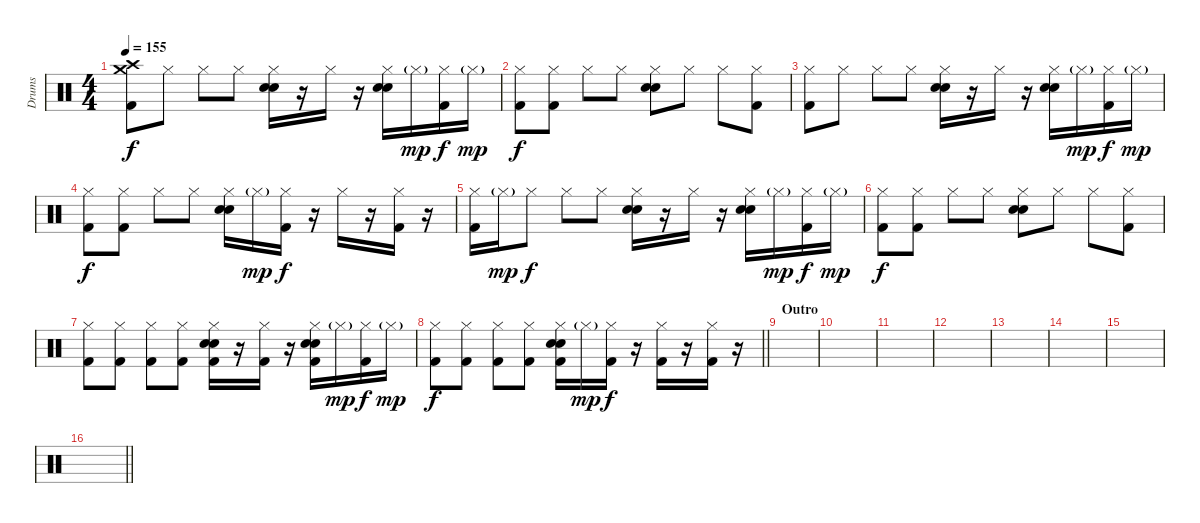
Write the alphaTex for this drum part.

\track ("Drums" "Drums") {instrument percussion}
\staff {score}
\articulation defaults
\ts (4 4)
\section ("" "")
\tempo 155
\clef neutral
\ks c
("Crash high (hit)" "Crash medium (hit)" "Kick (hit) 2").8{dy f} "Hi-Hat (closed)".8 "Hi-Hat (closed)".8 "Hi-Hat (closed)".8 ("Hi-Hat (closed)" "Electric Snare (hit)" "Hand Clap (hit)").16 r.16 "Hi-Hat (closed)".16 r.16 ("Hi-Hat (closed)" "Electric Snare (hit)" "Hand Clap (hit)").16 "Hi-Hat (closed)"{g}.16{dy mp} ("Hi-Hat (closed)" "Kick (hit) 2").16{dy f} "Hi-Hat (closed)"{g}.16{dy mp} |
("Hi-Hat (closed)" "Kick (hit) 2").8{dy f} ("Hi-Hat (closed)" "Kick (hit) 2").8 "Hi-Hat (closed)".8 "Hi-Hat (closed)".8 ("Hi-Hat (closed)" "Electric Snare (hit)" "Hand Clap (hit)").8 "Hi-Hat (closed)".8 "Hi-Hat (closed)".8 ("Hi-Hat (closed)" "Kick (hit) 2").8 |
("Hi-Hat (closed)" "Kick (hit) 2").8 "Hi-Hat (closed)".8 "Hi-Hat (closed)".8 "Hi-Hat (closed)".8 ("Hi-Hat (closed)" "Electric Snare (hit)" "Hand Clap (hit)").16 r.16 "Hi-Hat (closed)".16 r.16 ("Hi-Hat (closed)" "Electric Snare (hit)" "Hand Clap (hit)").16 "Hi-Hat (closed)"{g}.16{dy mp} ("Hi-Hat (closed)" "Kick (hit) 2").16{dy f} "Hi-Hat (closed)"{g}.16{dy mp} |
("Hi-Hat (closed)" "Kick (hit) 2").8{dy f} ("Hi-Hat (closed)" "Kick (hit) 2").8 "Hi-Hat (closed)".8 "Hi-Hat (closed)".8 ("Hi-Hat (closed)" "Electric Snare (hit)" "Hand Clap (hit)").16 "Hi-Hat (closed)"{g}.16{dy mp} ("Hi-Hat (closed)" "Kick (hit) 2").16{dy f} r.16 "Hi-Hat (closed)".16 r.16 ("Hi-Hat (closed)" "Kick (hit) 2").16 r.16 |
("Hi-Hat (closed)" "Kick (hit) 2").16 "Hi-Hat (closed)"{g}.16{dy mp} "Hi-Hat (closed)".8{dy f} "Hi-Hat (closed)".8 "Hi-Hat (closed)".8 ("Hi-Hat (closed)" "Electric Snare (hit)" "Hand Clap (hit)").16 r.16 "Hi-Hat (closed)".16 r.16 ("Hi-Hat (closed)" "Electric Snare (hit)" "Hand Clap (hit)").16 "Hi-Hat (closed)"{g}.16{dy mp} ("Hi-Hat (closed)" "Kick (hit) 2").16{dy f} "Hi-Hat (closed)"{g}.16{dy mp} |
("Hi-Hat (closed)" "Kick (hit) 2").8{dy f} ("Hi-Hat (closed)" "Kick (hit) 2").8 "Hi-Hat (closed)".8 "Hi-Hat (closed)".8 ("Hi-Hat (closed)" "Electric Snare (hit)" "Hand Clap (hit)").8 "Hi-Hat (closed)".8 "Hi-Hat (closed)".8 ("Hi-Hat (closed)" "Kick (hit) 2").8 |
("Hi-Hat (closed)" "Kick (hit) 2").8 ("Hi-Hat (closed)" "Kick (hit) 2").8 ("Hi-Hat (closed)" "Kick (hit) 2").8 ("Hi-Hat (closed)" "Kick (hit) 2").8 ("Hi-Hat (closed)" "Electric Snare (hit)" "Hand Clap (hit)" "Kick (hit) 2").16 r.16 ("Hi-Hat (closed)" "Kick (hit) 2").16 r.16 ("Hi-Hat (closed)" "Electric Snare (hit)" "Hand Clap (hit)" "Kick (hit) 2").16 "Hi-Hat (closed)"{g}.16{dy mp} ("Hi-Hat (closed)" "Kick (hit) 2").16{dy f} "Hi-Hat (closed)"{g}.16{dy mp} |
\barLineRight lightlight
("Hi-Hat (closed)" "Kick (hit) 2").8{dy f} ("Hi-Hat (closed)" "Kick (hit) 2").8 ("Hi-Hat (closed)" "Kick (hit) 2").8 ("Hi-Hat (closed)" "Kick (hit) 2").8 ("Hi-Hat (closed)" "Electric Snare (hit)" "Hand Clap (hit)" "Kick (hit) 2").16 "Hi-Hat (closed)"{g}.16{dy mp} ("Hi-Hat (closed)" "Kick (hit) 2").16{dy f} r.16 ("Hi-Hat (closed)" "Kick (hit) 2").16 r.16 ("Hi-Hat (closed)" "Kick (hit) 2").16 r.16 |
\section ("" "Outro")
|
|
|
|
|
|
|
\barLineRight lightlight
